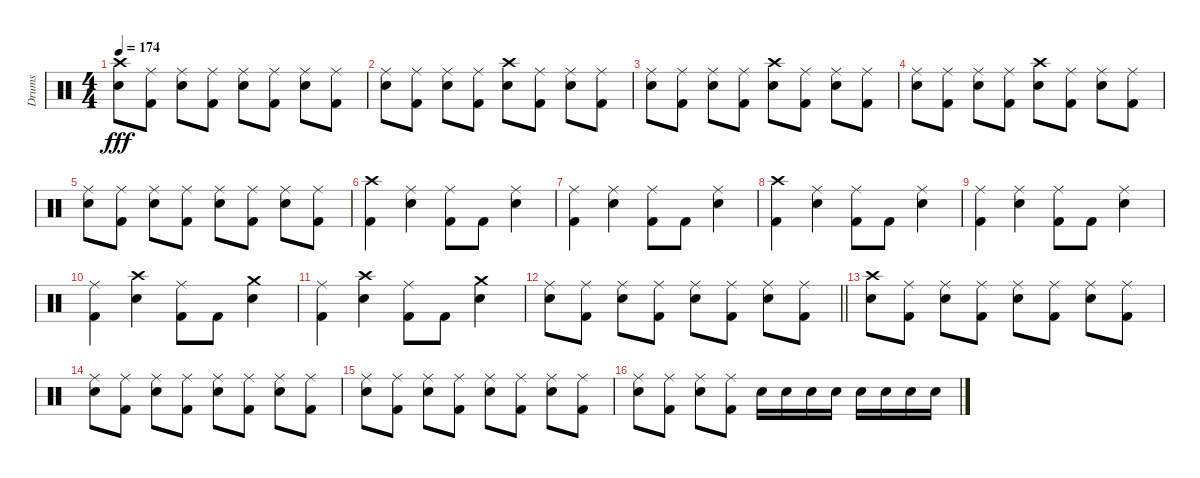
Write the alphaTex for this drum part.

\track ("Drums" "Drums") {instrument percussion}
\staff {score}
\articulation defaults
\ts (4 4)
\tempo 174
\clef neutral
\ks c
("Crash high (hit)" "Electric Snare (hit)").8{dy fff} ("Ride (middle)" "Kick (hit) 2").8 ("Ride (middle)" "Electric Snare (hit)").8 ("Ride (middle)" "Kick (hit) 2").8 ("Ride (middle)" "Electric Snare (hit)").8 ("Ride (middle)" "Kick (hit) 2").8 ("Ride (middle)" "Electric Snare (hit)").8 ("Ride (middle)" "Kick (hit) 2").8 |
("Ride (middle)" "Electric Snare (hit)").8 ("Ride (middle)" "Kick (hit) 2").8 ("Ride (middle)" "Electric Snare (hit)").8 ("Ride (middle)" "Kick (hit) 2").8 ("Crash high (hit)" "Electric Snare (hit)").8 ("Ride (middle)" "Kick (hit) 2").8 ("Ride (middle)" "Electric Snare (hit)").8 ("Ride (middle)" "Kick (hit) 2").8 |
("Ride (middle)" "Electric Snare (hit)").8 ("Ride (middle)" "Kick (hit) 2").8 ("Ride (middle)" "Electric Snare (hit)").8 ("Ride (middle)" "Kick (hit) 2").8 ("Crash high (hit)" "Electric Snare (hit)").8 ("Ride (middle)" "Kick (hit) 2").8 ("Ride (middle)" "Electric Snare (hit)").8 ("Ride (middle)" "Kick (hit) 2").8 |
("Ride (middle)" "Electric Snare (hit)").8 ("Ride (middle)" "Kick (hit) 2").8 ("Ride (middle)" "Electric Snare (hit)").8 ("Ride (middle)" "Kick (hit) 2").8 ("Crash high (hit)" "Electric Snare (hit)").8 ("Ride (middle)" "Kick (hit) 2").8 ("Ride (middle)" "Electric Snare (hit)").8 ("Ride (middle)" "Kick (hit) 2").8 |
("Ride (middle)" "Electric Snare (hit)").8 ("Ride (middle)" "Kick (hit) 2").8 ("Ride (middle)" "Electric Snare (hit)").8 ("Ride (middle)" "Kick (hit) 2").8 ("Ride (middle)" "Electric Snare (hit)").8 ("Ride (middle)" "Kick (hit) 2").8 ("Ride (middle)" "Electric Snare (hit)").8 ("Ride (middle)" "Kick (hit) 2").8 |
("Crash high (hit)" "Kick (hit) 2").4 ("Ride (middle)" "Electric Snare (hit)").4 ("Ride (middle)" "Kick (hit) 2").8 "Kick (hit) 2".8 ("Ride (middle)" "Electric Snare (hit)").4 |
("Ride (middle)" "Kick (hit) 2").4 ("Ride (middle)" "Electric Snare (hit)").4 ("Ride (middle)" "Kick (hit) 2").8 "Kick (hit) 2".8 ("Ride (middle)" "Electric Snare (hit)").4 |
("Crash high (hit)" "Kick (hit) 2").4 ("Ride (middle)" "Electric Snare (hit)").4 ("Ride (middle)" "Kick (hit) 2").8 "Kick (hit) 2".8 ("Ride (middle)" "Electric Snare (hit)").4 |
("Ride (middle)" "Kick (hit) 2").4 ("Ride (middle)" "Electric Snare (hit)").4 ("Ride (middle)" "Kick (hit) 2").8 "Kick (hit) 2".8 ("Ride (middle)" "Electric Snare (hit)").4 |
("Ride (middle)" "Kick (hit) 2").4 ("Crash high (hit)" "Electric Snare (hit)").4 ("Ride (middle)" "Kick (hit) 2").8 "Kick (hit) 2".8 ("Crash medium (hit)" "Electric Snare (hit)").4 |
("Ride (middle)" "Kick (hit) 2").4 ("Crash high (hit)" "Electric Snare (hit)").4 ("Ride (middle)" "Kick (hit) 2").8 "Kick (hit) 2".8 ("Crash medium (hit)" "Electric Snare (hit)").4 |
\barLineRight lightlight
("Ride (middle)" "Electric Snare (hit)").8 ("Ride (middle)" "Kick (hit) 2").8 ("Ride (middle)" "Electric Snare (hit)").8 ("Ride (middle)" "Kick (hit) 2").8 ("Ride (middle)" "Electric Snare (hit)").8 ("Ride (middle)" "Kick (hit) 2").8 ("Ride (middle)" "Electric Snare (hit)").8 ("Ride (middle)" "Kick (hit) 2").8 |
("Crash high (hit)" "Electric Snare (hit)").8 ("Ride (middle)" "Kick (hit) 2").8 ("Ride (middle)" "Electric Snare (hit)").8 ("Ride (middle)" "Kick (hit) 2").8 ("Ride (middle)" "Electric Snare (hit)").8 ("Ride (middle)" "Kick (hit) 2").8 ("Ride (middle)" "Electric Snare (hit)").8 ("Ride (middle)" "Kick (hit) 2").8 |
("Ride (middle)" "Electric Snare (hit)").8 ("Ride (middle)" "Kick (hit) 2").8 ("Ride (middle)" "Electric Snare (hit)").8 ("Ride (middle)" "Kick (hit) 2").8 ("Ride (middle)" "Electric Snare (hit)").8 ("Ride (middle)" "Kick (hit) 2").8 ("Ride (middle)" "Electric Snare (hit)").8 ("Ride (middle)" "Kick (hit) 2").8 |
("Ride (middle)" "Electric Snare (hit)").8 ("Ride (middle)" "Kick (hit) 2").8 ("Ride (middle)" "Electric Snare (hit)").8 ("Ride (middle)" "Kick (hit) 2").8 ("Ride (middle)" "Electric Snare (hit)").8 ("Ride (middle)" "Kick (hit) 2").8 ("Ride (middle)" "Electric Snare (hit)").8 ("Ride (middle)" "Kick (hit) 2").8 |
("Ride (middle)" "Electric Snare (hit)").8 ("Ride (middle)" "Kick (hit) 2").8 ("Ride (middle)" "Electric Snare (hit)").8 ("Ride (middle)" "Kick (hit) 2").8 "Electric Snare (hit)".16 "Electric Snare (hit)".16 "Electric Snare (hit)".16 "Electric Snare (hit)".16 "Electric Snare (hit)".16 "Electric Snare (hit)".16 "Electric Snare (hit)".16 "Electric Snare (hit)".16
